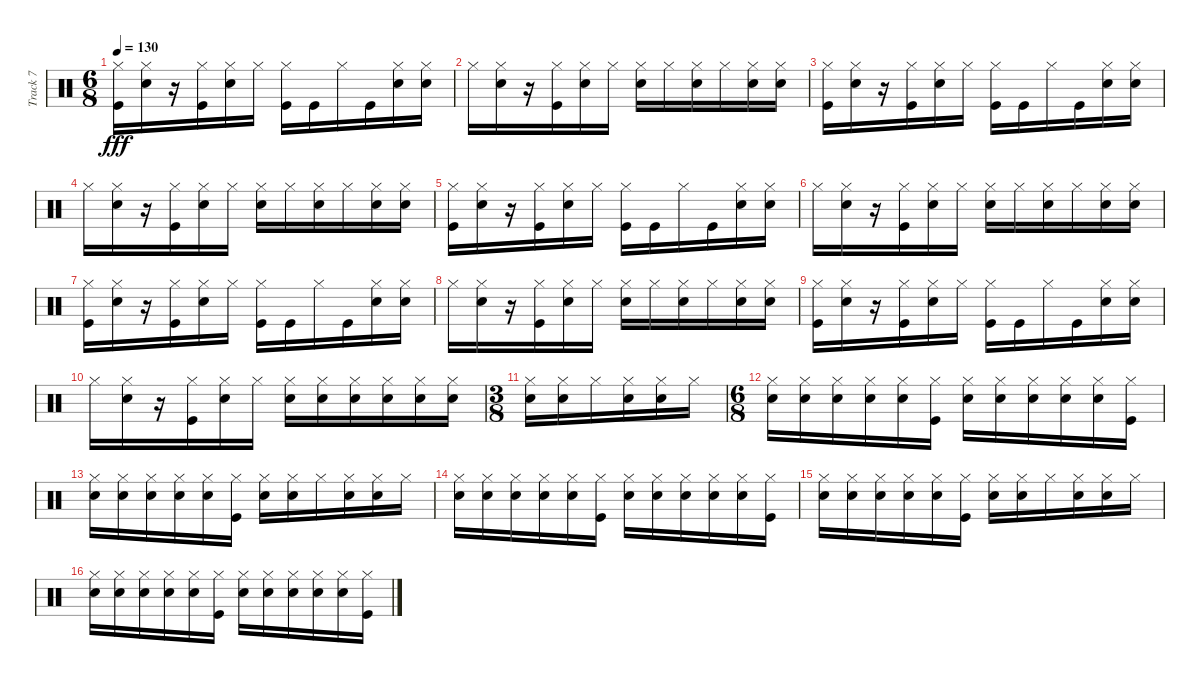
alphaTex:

\track ("Track 7" "Track 7") {instrument percussion}
\staff {score}
\articulation defaults
\ts (6 8)
\tempo 130
\clef neutral
\ks c
("Kick (hit)" "Hi-Hat (closed)").16{dy fff} ("Snare (hit) 2" "Hi-Hat (closed)").16 r.16 ("Kick (hit)" "Hi-Hat (closed)").16 ("Snare (hit) 2" "Hi-Hat (closed)").16 "Hi-Hat (closed)".16 ("Kick (hit)" "Hi-Hat (closed)").16 "Kick (hit)".16 "Hi-Hat (closed)".16 "Kick (hit)".16 ("Snare (hit) 2" "Hi-Hat (closed)").16 ("Snare (hit) 2" "Hi-Hat (closed)").16 |
"Hi-Hat (closed)".16 ("Snare (hit) 2" "Hi-Hat (closed)").16 r.16 ("Kick (hit)" "Hi-Hat (closed)").16 ("Snare (hit) 2" "Hi-Hat (closed)").16 "Hi-Hat (closed)".16 ("Snare (hit) 2" "Hi-Hat (closed)").16 "Hi-Hat (closed)".16 ("Snare (hit) 2" "Hi-Hat (closed)").16 "Hi-Hat (closed)".16 ("Snare (hit) 2" "Hi-Hat (closed)").16 ("Snare (hit) 2" "Hi-Hat (closed)").16 |
("Kick (hit)" "Hi-Hat (closed)").16 ("Snare (hit) 2" "Hi-Hat (closed)").16 r.16 ("Kick (hit)" "Hi-Hat (closed)").16 ("Snare (hit) 2" "Hi-Hat (closed)").16 "Hi-Hat (closed)".16 ("Kick (hit)" "Hi-Hat (closed)").16 "Kick (hit)".16 "Hi-Hat (closed)".16 "Kick (hit)".16 ("Snare (hit) 2" "Hi-Hat (closed)").16 ("Snare (hit) 2" "Hi-Hat (closed)").16 |
"Hi-Hat (closed)".16 ("Snare (hit) 2" "Hi-Hat (closed)").16 r.16 ("Kick (hit)" "Hi-Hat (closed)").16 ("Snare (hit) 2" "Hi-Hat (closed)").16 "Hi-Hat (closed)".16 ("Snare (hit) 2" "Hi-Hat (closed)").16 "Hi-Hat (closed)".16 ("Snare (hit) 2" "Hi-Hat (closed)").16 "Hi-Hat (closed)".16 ("Snare (hit) 2" "Hi-Hat (closed)").16 ("Snare (hit) 2" "Hi-Hat (closed)").16 |
("Kick (hit)" "Hi-Hat (closed)").16 ("Snare (hit) 2" "Hi-Hat (closed)").16 r.16 ("Kick (hit)" "Hi-Hat (closed)").16 ("Snare (hit) 2" "Hi-Hat (closed)").16 "Hi-Hat (closed)".16 ("Kick (hit)" "Hi-Hat (closed)").16 "Kick (hit)".16 "Hi-Hat (closed)".16 "Kick (hit)".16 ("Snare (hit) 2" "Hi-Hat (closed)").16 ("Snare (hit) 2" "Hi-Hat (closed)").16 |
"Hi-Hat (closed)".16 ("Snare (hit) 2" "Hi-Hat (closed)").16 r.16 ("Kick (hit)" "Hi-Hat (closed)").16 ("Snare (hit) 2" "Hi-Hat (closed)").16 "Hi-Hat (closed)".16 ("Snare (hit) 2" "Hi-Hat (closed)").16 "Hi-Hat (closed)".16 ("Snare (hit) 2" "Hi-Hat (closed)").16 "Hi-Hat (closed)".16 ("Snare (hit) 2" "Hi-Hat (closed)").16 ("Snare (hit) 2" "Hi-Hat (closed)").16 |
("Kick (hit)" "Hi-Hat (closed)").16 ("Snare (hit) 2" "Hi-Hat (closed)").16 r.16 ("Kick (hit)" "Hi-Hat (closed)").16 ("Snare (hit) 2" "Hi-Hat (closed)").16 "Hi-Hat (closed)".16 ("Kick (hit)" "Hi-Hat (closed)").16 "Kick (hit)".16 "Hi-Hat (closed)".16 "Kick (hit)".16 ("Snare (hit) 2" "Hi-Hat (closed)").16 ("Snare (hit) 2" "Hi-Hat (closed)").16 |
"Hi-Hat (closed)".16 ("Snare (hit) 2" "Hi-Hat (closed)").16 r.16 ("Kick (hit)" "Hi-Hat (closed)").16 ("Snare (hit) 2" "Hi-Hat (closed)").16 "Hi-Hat (closed)".16 ("Snare (hit) 2" "Hi-Hat (closed)").16 "Hi-Hat (closed)".16 ("Snare (hit) 2" "Hi-Hat (closed)").16 "Hi-Hat (closed)".16 ("Snare (hit) 2" "Hi-Hat (closed)").16 ("Snare (hit) 2" "Hi-Hat (closed)").16 |
("Kick (hit)" "Hi-Hat (closed)").16 ("Snare (hit) 2" "Hi-Hat (closed)").16 r.16 ("Kick (hit)" "Hi-Hat (closed)").16 ("Snare (hit) 2" "Hi-Hat (closed)").16 "Hi-Hat (closed)".16 ("Kick (hit)" "Hi-Hat (closed)").16 "Kick (hit)".16 "Hi-Hat (closed)".16 "Kick (hit)".16 ("Snare (hit) 2" "Hi-Hat (closed)").16 ("Snare (hit) 2" "Hi-Hat (closed)").16 |
"Hi-Hat (closed)".16 ("Snare (hit) 2" "Hi-Hat (closed)").16 r.16 ("Kick (hit)" "Hi-Hat (closed)").16 ("Snare (hit) 2" "Hi-Hat (closed)").16 "Hi-Hat (closed)".16 ("Snare (hit) 2" "Hi-Hat (closed)").16 ("Snare (hit) 2" "Hi-Hat (closed)").16 ("Snare (hit) 2" "Hi-Hat (closed)").16 ("Snare (hit) 2" "Hi-Hat (closed)").16 ("Snare (hit) 2" "Hi-Hat (closed)").16 ("Snare (hit) 2" "Hi-Hat (closed)").16 |
\ts (3 8)
("Snare (hit) 2" "Hi-Hat (closed)").16 ("Snare (hit) 2" "Hi-Hat (closed)").16 "Hi-Hat (closed)".16 ("Snare (hit) 2" "Hi-Hat (closed)").16 ("Snare (hit) 2" "Hi-Hat (closed)").16 "Hi-Hat (closed)".16 |
\ts (6 8)
("Snare (hit) 2" "Hi-Hat (closed)").16 ("Snare (hit) 2" "Hi-Hat (closed)").16 ("Snare (hit) 2" "Hi-Hat (closed)").16 ("Snare (hit) 2" "Hi-Hat (closed)").16 ("Snare (hit) 2" "Hi-Hat (closed)").16 ("Kick (hit)" "Hi-Hat (closed)").16 ("Snare (hit) 2" "Hi-Hat (closed)").16 ("Snare (hit) 2" "Hi-Hat (closed)").16 ("Snare (hit) 2" "Hi-Hat (closed)").16 ("Snare (hit) 2" "Hi-Hat (closed)").16 ("Snare (hit) 2" "Hi-Hat (closed)").16 ("Kick (hit)" "Hi-Hat (closed)").16 |
("Snare (hit) 2" "Hi-Hat (closed)").16 ("Snare (hit) 2" "Hi-Hat (closed)").16 ("Snare (hit) 2" "Hi-Hat (closed)").16 ("Snare (hit) 2" "Hi-Hat (closed)").16 ("Snare (hit) 2" "Hi-Hat (closed)").16 ("Kick (hit)" "Hi-Hat (closed)").16 ("Snare (hit) 2" "Hi-Hat (closed)").16 ("Snare (hit) 2" "Hi-Hat (closed)").16 "Hi-Hat (closed)".16 ("Snare (hit) 2" "Hi-Hat (closed)").16 ("Snare (hit) 2" "Hi-Hat (closed)").16 "Hi-Hat (closed)".16 |
("Snare (hit) 2" "Hi-Hat (closed)").16 ("Snare (hit) 2" "Hi-Hat (closed)").16 ("Snare (hit) 2" "Hi-Hat (closed)").16 ("Snare (hit) 2" "Hi-Hat (closed)").16 ("Snare (hit) 2" "Hi-Hat (closed)").16 ("Kick (hit)" "Hi-Hat (closed)").16 ("Snare (hit) 2" "Hi-Hat (closed)").16 ("Snare (hit) 2" "Hi-Hat (closed)").16 ("Snare (hit) 2" "Hi-Hat (closed)").16 ("Snare (hit) 2" "Hi-Hat (closed)").16 ("Snare (hit) 2" "Hi-Hat (closed)").16 ("Kick (hit)" "Hi-Hat (closed)").16 |
("Snare (hit) 2" "Hi-Hat (closed)").16 ("Snare (hit) 2" "Hi-Hat (closed)").16 ("Snare (hit) 2" "Hi-Hat (closed)").16 ("Snare (hit) 2" "Hi-Hat (closed)").16 ("Snare (hit) 2" "Hi-Hat (closed)").16 ("Kick (hit)" "Hi-Hat (closed)").16 ("Snare (hit) 2" "Hi-Hat (closed)").16 ("Snare (hit) 2" "Hi-Hat (closed)").16 "Hi-Hat (closed)".16 ("Snare (hit) 2" "Hi-Hat (closed)").16 ("Snare (hit) 2" "Hi-Hat (closed)").16 "Hi-Hat (closed)".16 |
("Snare (hit) 2" "Hi-Hat (closed)").16 ("Snare (hit) 2" "Hi-Hat (closed)").16 ("Snare (hit) 2" "Hi-Hat (closed)").16 ("Snare (hit) 2" "Hi-Hat (closed)").16 ("Snare (hit) 2" "Hi-Hat (closed)").16 ("Kick (hit)" "Hi-Hat (closed)").16 ("Snare (hit) 2" "Hi-Hat (closed)").16 ("Snare (hit) 2" "Hi-Hat (closed)").16 ("Snare (hit) 2" "Hi-Hat (closed)").16 ("Snare (hit) 2" "Hi-Hat (closed)").16 ("Snare (hit) 2" "Hi-Hat (closed)").16 ("Kick (hit)" "Hi-Hat (closed)").16
